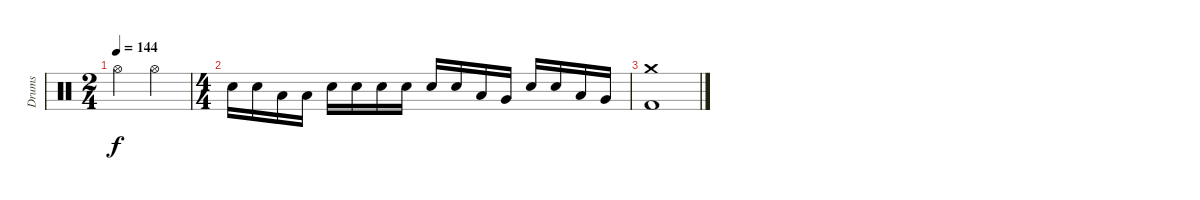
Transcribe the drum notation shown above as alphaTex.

\track ("Drums" "Drums") {instrument percussion}
\staff {score}
\articulation defaults
\ts (2 4)
\tempo 144
\clef neutral
\ks c "Hi-Hat (open)".4{dy f} "Hi-Hat (open)".4
|
\ts (4 4)
"Electric Snare (hit)".16 "Electric Snare (hit)".16 "Low Tom (hit)".16 "Low Tom (hit)".16 "Electric Snare (hit)".16 "Electric Snare (hit)".16 "Electric Snare (hit)".16 "Electric Snare (hit)".16 "Electric Snare (hit)".16 "Electric Snare (hit)".16 "Low Tom (hit)".16 "Very Low Tom (hit)".16 "Electric Snare (hit)".16 "Electric Snare (hit)".16 "Low Tom (hit)".16 "Very Low Tom (hit)".16 |
("Crash medium (hit)" "Kick (hit) 2").1
